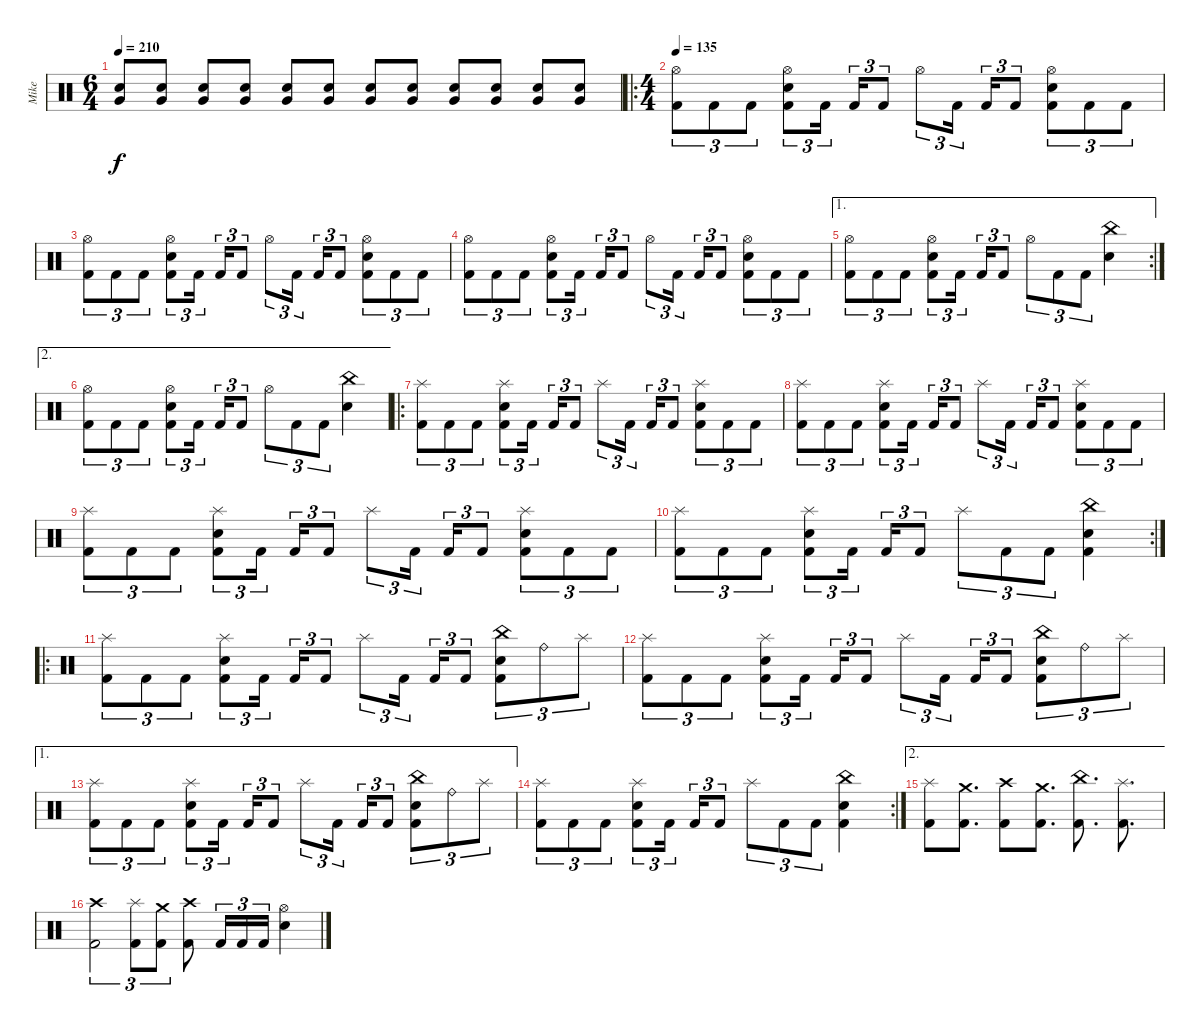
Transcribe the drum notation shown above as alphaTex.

\track ("Mike" "Mike") {instrument percussion}
\staff {score}
\articulation defaults
\ts (6 4)
\tempo 210
\clef neutral
\ks c
("Electric Snare (hit)" "Very Low Tom (hit)").8{dy f} ("Electric Snare (hit)" "Very Low Tom (hit)").8 ("Electric Snare (hit)" "Very Low Tom (hit)").8 ("Electric Snare (hit)" "Very Low Tom (hit)").8 ("Electric Snare (hit)" "Very Low Tom (hit)").8 ("Electric Snare (hit)" "Very Low Tom (hit)").8 ("Electric Snare (hit)" "Very Low Tom (hit)").8 ("Electric Snare (hit)" "Very Low Tom (hit)").8 ("Electric Snare (hit)" "Very Low Tom (hit)").8 ("Electric Snare (hit)" "Very Low Tom (hit)").8 ("Electric Snare (hit)" "Very Low Tom (hit)").8 ("Electric Snare (hit)" "Very Low Tom (hit)").8 |
\ro
\ts (4 4)
\tempo 135
("Kick (hit) 2" "Hi-Hat (open)").8{tu (3 2)} "Kick (hit) 2".8{tu (3 2)} "Kick (hit) 2".8{tu (3 2)} ("Kick (hit) 2" "Electric Snare (hit)" "Hi-Hat (open)").8{tu (3 2)} "Kick (hit) 2".16{tu (3 2) beam splitsecondary} "Kick (hit) 2".16{tu (3 2)} "Kick (hit) 2".8{tu (3 2)} "Hi-Hat (open)".8{tu (3 2)} "Kick (hit) 2".16{tu (3 2) beam splitsecondary} "Kick (hit) 2".16{tu (3 2)} "Kick (hit) 2".8{tu (3 2)} ("Kick (hit) 2" "Electric Snare (hit)" "Hi-Hat (open)").8{tu (3 2)} "Kick (hit) 2".8{tu (3 2)} "Kick (hit) 2".8{tu (3 2)} |
("Kick (hit) 2" "Hi-Hat (open)").8{tu (3 2)} "Kick (hit) 2".8{tu (3 2)} "Kick (hit) 2".8{tu (3 2)} ("Kick (hit) 2" "Electric Snare (hit)" "Hi-Hat (open)").8{tu (3 2)} "Kick (hit) 2".16{tu (3 2) beam splitsecondary} "Kick (hit) 2".16{tu (3 2)} "Kick (hit) 2".8{tu (3 2)} "Hi-Hat (open)".8{tu (3 2)} "Kick (hit) 2".16{tu (3 2) beam splitsecondary} "Kick (hit) 2".16{tu (3 2)} "Kick (hit) 2".8{tu (3 2)} ("Kick (hit) 2" "Electric Snare (hit)" "Hi-Hat (open)").8{tu (3 2)} "Kick (hit) 2".8{tu (3 2)} "Kick (hit) 2".8{tu (3 2)} |
("Kick (hit) 2" "Hi-Hat (open)").8{tu (3 2)} "Kick (hit) 2".8{tu (3 2)} "Kick (hit) 2".8{tu (3 2)} ("Kick (hit) 2" "Electric Snare (hit)" "Hi-Hat (open)").8{tu (3 2)} "Kick (hit) 2".16{tu (3 2) beam splitsecondary} "Kick (hit) 2".16{tu (3 2)} "Kick (hit) 2".8{tu (3 2)} "Hi-Hat (open)".8{tu (3 2)} "Kick (hit) 2".16{tu (3 2) beam splitsecondary} "Kick (hit) 2".16{tu (3 2)} "Kick (hit) 2".8{tu (3 2)} ("Kick (hit) 2" "Electric Snare (hit)" "Hi-Hat (open)").8{tu (3 2)} "Kick (hit) 2".8{tu (3 2)} "Kick (hit) 2".8{tu (3 2)} |
\ae 1
\rc 2
("Kick (hit) 2" "Hi-Hat (open)").8{tu (3 2)} "Kick (hit) 2".8{tu (3 2)} "Kick (hit) 2".8{tu (3 2)} ("Kick (hit) 2" "Electric Snare (hit)" "Hi-Hat (open)").8{tu (3 2)} "Kick (hit) 2".16{tu (3 2) beam splitsecondary} "Kick (hit) 2".16{tu (3 2)} "Kick (hit) 2".8{tu (3 2)} "Hi-Hat (open)".8{tu (3 2)} "Kick (hit) 2".8{tu (3 2)} "Kick (hit) 2".8{tu (3 2)} ("Electric Snare (hit)" "China (hit)").4 |
\ae 2
("Kick (hit) 2" "Hi-Hat (open)").8{tu (3 2)} "Kick (hit) 2".8{tu (3 2)} "Kick (hit) 2".8{tu (3 2)} ("Kick (hit) 2" "Electric Snare (hit)" "Hi-Hat (open)").8{tu (3 2)} "Kick (hit) 2".16{tu (3 2) beam splitsecondary} "Kick (hit) 2".16{tu (3 2)} "Kick (hit) 2".8{tu (3 2)} "Hi-Hat (open)".8{tu (3 2)} "Kick (hit) 2".8{tu (3 2)} "Kick (hit) 2".8{tu (3 2)} ("Electric Snare (hit)" "China (hit)").4 |
\ro
("Kick (hit) 2" "Splash (hit)").8{tu (3 2)} "Kick (hit) 2".8{tu (3 2)} "Kick (hit) 2".8{tu (3 2)} ("Kick (hit) 2" "Electric Snare (hit)" "Splash (hit)").8{tu (3 2)} "Kick (hit) 2".16{tu (3 2) beam splitsecondary} "Kick (hit) 2".16{tu (3 2)} "Kick (hit) 2".8{tu (3 2)} "Splash (hit)".8{tu (3 2)} "Kick (hit) 2".16{tu (3 2) beam splitsecondary} "Kick (hit) 2".16{tu (3 2)} "Kick (hit) 2".8{tu (3 2)} ("Kick (hit) 2" "Electric Snare (hit)" "Splash (hit)").8{tu (3 2)} "Kick (hit) 2".8{tu (3 2)} "Kick (hit) 2".8{tu (3 2)} |
("Kick (hit) 2" "Splash (hit)").8{tu (3 2)} "Kick (hit) 2".8{tu (3 2)} "Kick (hit) 2".8{tu (3 2)} ("Kick (hit) 2" "Electric Snare (hit)" "Splash (hit)").8{tu (3 2)} "Kick (hit) 2".16{tu (3 2) beam splitsecondary} "Kick (hit) 2".16{tu (3 2)} "Kick (hit) 2".8{tu (3 2)} "Splash (hit)".8{tu (3 2)} "Kick (hit) 2".16{tu (3 2) beam splitsecondary} "Kick (hit) 2".16{tu (3 2)} "Kick (hit) 2".8{tu (3 2)} ("Kick (hit) 2" "Electric Snare (hit)" "Splash (hit)").8{tu (3 2)} "Kick (hit) 2".8{tu (3 2)} "Kick (hit) 2".8{tu (3 2)} |
("Kick (hit) 2" "Splash (hit)").8{tu (3 2)} "Kick (hit) 2".8{tu (3 2)} "Kick (hit) 2".8{tu (3 2)} ("Kick (hit) 2" "Electric Snare (hit)" "Splash (hit)").8{tu (3 2)} "Kick (hit) 2".16{tu (3 2) beam splitsecondary} "Kick (hit) 2".16{tu (3 2)} "Kick (hit) 2".8{tu (3 2)} "Splash (hit)".8{tu (3 2)} "Kick (hit) 2".16{tu (3 2) beam splitsecondary} "Kick (hit) 2".16{tu (3 2)} "Kick (hit) 2".8{tu (3 2)} ("Kick (hit) 2" "Electric Snare (hit)" "Splash (hit)").8{tu (3 2)} "Kick (hit) 2".8{tu (3 2)} "Kick (hit) 2".8{tu (3 2)} |
\rc 2
("Kick (hit) 2" "Splash (hit)").8{tu (3 2)} "Kick (hit) 2".8{tu (3 2)} "Kick (hit) 2".8{tu (3 2)} ("Kick (hit) 2" "Electric Snare (hit)" "Splash (hit)").8{tu (3 2)} "Kick (hit) 2".16{tu (3 2) beam splitsecondary} "Kick (hit) 2".16{tu (3 2)} "Kick (hit) 2".8{tu (3 2)} "Splash (hit)".8{tu (3 2)} "Kick (hit) 2".8{tu (3 2)} "Kick (hit) 2".8{tu (3 2)} ("Kick (hit) 2" "Electric Snare (hit)" "China (hit)").4 |
\ro
("Kick (hit) 2" "Splash (hit)").8{tu (3 2)} "Kick (hit) 2".8{tu (3 2)} "Kick (hit) 2".8{tu (3 2)} ("Kick (hit) 2" "Electric Snare (hit)" "Splash (hit)").8{tu (3 2)} "Kick (hit) 2".16{tu (3 2) beam splitsecondary} "Kick (hit) 2".16{tu (3 2)} "Kick (hit) 2".8{tu (3 2)} "Splash (hit)".8{tu (3 2)} "Kick (hit) 2".16{tu (3 2) beam splitsecondary} "Kick (hit) 2".16{tu (3 2)} "Kick (hit) 2".8{tu (3 2)} ("Kick (hit) 2" "Electric Snare (hit)" "China (hit)").8{tu (3 2)} "Ride (bell)".8{tu (3 2)} "Splash (hit)".8{tu (3 2)} |
("Kick (hit) 2" "Splash (hit)").8{tu (3 2)} "Kick (hit) 2".8{tu (3 2)} "Kick (hit) 2".8{tu (3 2)} ("Kick (hit) 2" "Electric Snare (hit)" "Splash (hit)").8{tu (3 2)} "Kick (hit) 2".16{tu (3 2) beam splitsecondary} "Kick (hit) 2".16{tu (3 2)} "Kick (hit) 2".8{tu (3 2)} "Splash (hit)".8{tu (3 2)} "Kick (hit) 2".16{tu (3 2) beam splitsecondary} "Kick (hit) 2".16{tu (3 2)} "Kick (hit) 2".8{tu (3 2)} ("Kick (hit) 2" "Electric Snare (hit)" "China (hit)").8{tu (3 2)} "Ride (bell)".8{tu (3 2)} "Splash (hit)".8{tu (3 2)} |
\ae 1
("Kick (hit) 2" "Splash (hit)").8{tu (3 2)} "Kick (hit) 2".8{tu (3 2)} "Kick (hit) 2".8{tu (3 2)} ("Kick (hit) 2" "Electric Snare (hit)" "Splash (hit)").8{tu (3 2)} "Kick (hit) 2".16{tu (3 2) beam splitsecondary} "Kick (hit) 2".16{tu (3 2)} "Kick (hit) 2".8{tu (3 2)} "Splash (hit)".8{tu (3 2)} "Kick (hit) 2".16{tu (3 2) beam splitsecondary} "Kick (hit) 2".16{tu (3 2)} "Kick (hit) 2".8{tu (3 2)} ("Kick (hit) 2" "Electric Snare (hit)" "China (hit)").8{tu (3 2)} "Ride (bell)".8{tu (3 2)} "Splash (hit)".8{tu (3 2)} |
\rc 2
("Kick (hit) 2" "Splash (hit)").8{tu (3 2)} "Kick (hit) 2".8{tu (3 2)} "Kick (hit) 2".8{tu (3 2)} ("Kick (hit) 2" "Electric Snare (hit)" "Splash (hit)").8{tu (3 2)} "Kick (hit) 2".16{tu (3 2) beam splitsecondary} "Kick (hit) 2".16{tu (3 2)} "Kick (hit) 2".8{tu (3 2)} "Splash (hit)".8{tu (3 2)} "Kick (hit) 2".8{tu (3 2)} "Kick (hit) 2".8{tu (3 2)} ("Kick (hit) 2" "Electric Snare (hit)" "China (hit)").4 |
\ae 2
("Kick (hit) 2" "Splash (hit)").8 ("Kick (hit) 2" "Crash medium (hit)").8{d} ("Kick (hit) 2" "Crash high (hit)").8 ("Kick (hit) 2" "Crash medium (hit)").8{d} ("Kick (hit) 2" "China (hit)").8{d} ("Kick (hit) 2" "Splash (hit)").8{d} |
("Kick (hit) 2" "Crash high (hit)").2{tu (3 2)} ("Kick (hit) 2" "Splash (hit)").8{tu (3 2)} ("Kick (hit) 2" "Crash medium (hit)").8{tu (3 2)} ("Kick (hit) 2" "Crash high (hit)").8 "Kick (hit) 2".16{tu (3 2)} "Kick (hit) 2".16{tu (3 2)} "Kick (hit) 2".16{tu (3 2)} ("Electric Snare (hit)" "Hi-Hat (open)").4
